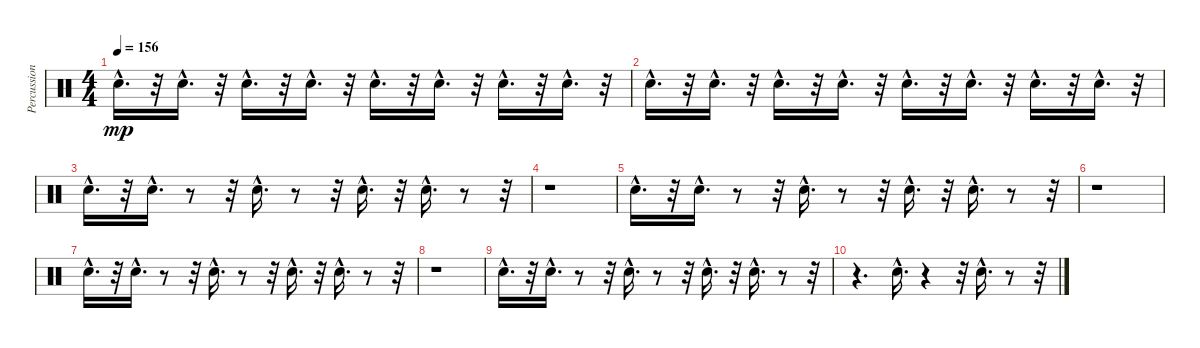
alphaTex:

\track ("Percussion" "Percussion") {instrument percussion}
\staff {score}
\articulation defaults
\ts (4 4)
\tempo 156
\clef neutral
\ks c "Snare (hit) 2"{hac}.16{d dy mp}
r.32 "Snare (hit) 2"{hac}.16{d} r.32 "Snare (hit) 2"{hac}.16{d} r.32 "Snare (hit) 2"{hac}.16{d} r.32 "Snare (hit) 2"{hac}.16{d} r.32 "Snare (hit) 2"{hac}.16{d} r.32 "Snare (hit) 2"{hac}.16{d} r.32 "Snare (hit) 2"{hac}.16{d} r.32 |
"Snare (hit) 2"{hac}.16{d} r.32 "Snare (hit) 2"{hac}.16{d} r.32 "Snare (hit) 2"{hac}.16{d} r.32 "Snare (hit) 2"{hac}.16{d} r.32 "Snare (hit) 2"{hac}.16{d} r.32 "Snare (hit) 2"{hac}.16{d} r.32 "Snare (hit) 2"{hac}.16{d} r.32 "Snare (hit) 2"{hac}.16{d} r.32 |
"Snare (hit) 2"{hac}.16{d} r.32 "Snare (hit) 2"{hac}.16{d} r.8 r.32 "Snare (hit) 2"{hac}.16{d} r.8 r.32 "Snare (hit) 2"{hac}.16{d} r.32 "Snare (hit) 2"{hac}.16{d} r.8 r.32 |
r.1 |
"Snare (hit) 2"{hac}.16{d} r.32 "Snare (hit) 2"{hac}.16{d} r.8 r.32 "Snare (hit) 2"{hac}.16{d} r.8 r.32 "Snare (hit) 2"{hac}.16{d} r.32 "Snare (hit) 2"{hac}.16{d} r.8 r.32 |
r.1 |
"Snare (hit) 2"{hac}.16{d} r.32 "Snare (hit) 2"{hac}.16{d} r.8 r.32 "Snare (hit) 2"{hac}.16{d} r.8 r.32 "Snare (hit) 2"{hac}.16{d} r.32 "Snare (hit) 2"{hac}.16{d} r.8 r.32 |
r.1 |
"Snare (hit) 2"{hac}.16{d} r.32 "Snare (hit) 2"{hac}.16{d} r.8 r.32 "Snare (hit) 2"{hac}.16{d} r.8 r.32 "Snare (hit) 2"{hac}.16{d} r.32 "Snare (hit) 2"{hac}.16{d} r.8 r.32 |
r.4{d} "Snare (hit) 2"{hac}.16{d} r.4 r.32 "Snare (hit) 2"{hac}.16{d} r.8 r.32
